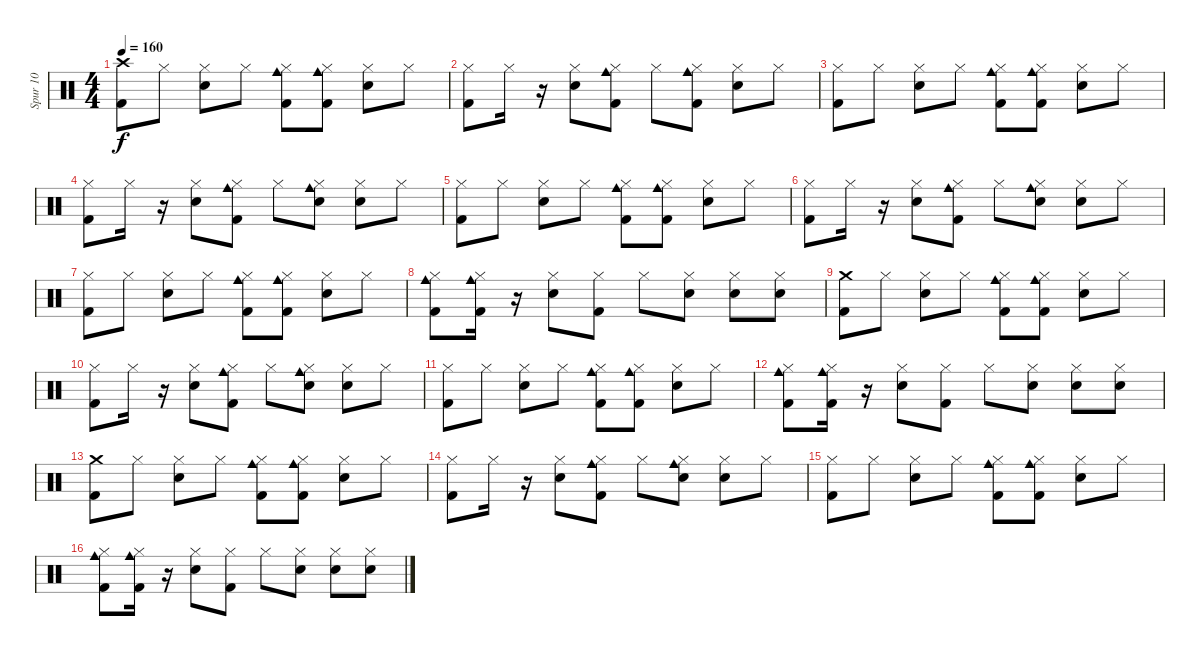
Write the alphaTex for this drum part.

\track ("Spur 10" "Spur 10") {instrument percussion}
\staff {score}
\articulation defaults
\ts (4 4)
\tempo 160
\clef neutral
\ks c
("Crash high (hit)" "Kick (hit) 2").8{dy f} "Hi-Hat (closed)".8 ("Hi-Hat (closed)" "Snare (hit) 2").8 "Hi-Hat (closed)".8 ("Hi-Hat (closed)" "Cowbell medium (hit)" "Kick (hit) 2").8 ("Hi-Hat (closed)" "Cowbell medium (hit)" "Kick (hit) 2").8 ("Hi-Hat (closed)" "Snare (hit) 2").8 "Hi-Hat (closed)".8 |
("Hi-Hat (closed)" "Kick (hit) 2").8 "Hi-Hat (closed)".16 r.16 ("Hi-Hat (closed)" "Snare (hit) 2").8 ("Hi-Hat (closed)" "Kick (hit) 2" "Cowbell medium (hit)").8 "Hi-Hat (closed)".8 ("Hi-Hat (closed)" "Kick (hit) 2" "Cowbell medium (hit)").8 ("Hi-Hat (closed)" "Snare (hit) 2").8 "Hi-Hat (closed)".8 |
("Hi-Hat (closed)" "Kick (hit) 2").8 "Hi-Hat (closed)".8 ("Hi-Hat (closed)" "Snare (hit) 2").8 "Hi-Hat (closed)".8 ("Hi-Hat (closed)" "Cowbell medium (hit)" "Kick (hit) 2").8 ("Hi-Hat (closed)" "Cowbell medium (hit)" "Kick (hit) 2").8 ("Hi-Hat (closed)" "Snare (hit) 2").8 "Hi-Hat (closed)".8 |
("Hi-Hat (closed)" "Kick (hit) 2").8 "Hi-Hat (closed)".16 r.16 ("Hi-Hat (closed)" "Snare (hit) 2").8 ("Hi-Hat (closed)" "Kick (hit) 2" "Cowbell medium (hit)").8 "Hi-Hat (closed)".8 ("Hi-Hat (closed)" "Hand Clap (hit)" "Cowbell medium (hit)").8 ("Hi-Hat (closed)" "Snare (hit) 2").8 "Hi-Hat (closed)".8 |
("Hi-Hat (closed)" "Kick (hit) 2").8 "Hi-Hat (closed)".8 ("Hi-Hat (closed)" "Snare (hit) 2").8 "Hi-Hat (closed)".8 ("Hi-Hat (closed)" "Cowbell medium (hit)" "Kick (hit) 2").8 ("Hi-Hat (closed)" "Cowbell medium (hit)" "Kick (hit) 2").8 ("Hi-Hat (closed)" "Snare (hit) 2").8 "Hi-Hat (closed)".8 |
("Hi-Hat (closed)" "Kick (hit) 2").8 "Hi-Hat (closed)".16 r.16 ("Hi-Hat (closed)" "Snare (hit) 2").8 ("Hi-Hat (closed)" "Kick (hit) 2" "Cowbell medium (hit)").8 "Hi-Hat (closed)".8 ("Hi-Hat (closed)" "Hand Clap (hit)" "Cowbell medium (hit)").8 ("Hi-Hat (closed)" "Snare (hit) 2").8 "Hi-Hat (closed)".8 |
("Hi-Hat (closed)" "Kick (hit) 2").8 "Hi-Hat (closed)".8 ("Hi-Hat (closed)" "Snare (hit) 2").8 "Hi-Hat (closed)".8 ("Hi-Hat (closed)" "Cowbell medium (hit)" "Kick (hit) 2").8 ("Hi-Hat (closed)" "Cowbell medium (hit)" "Kick (hit) 2").8 ("Hi-Hat (closed)" "Snare (hit) 2").8 "Hi-Hat (closed)".8 |
("Cowbell medium (hit)" "Hi-Hat (closed)" "Kick (hit) 2").8 ("Cowbell medium (hit)" "Kick (hit) 2" "Hi-Hat (closed)").16 r.16 ("Hi-Hat (closed)" "Snare (hit) 2").8 ("Hi-Hat (closed)" "Kick (hit) 2").8 "Hi-Hat (closed)".8 ("Hi-Hat (closed)" "Snare (hit) 2").8 ("Hi-Hat (closed)" "Snare (hit) 2").8 ("Snare (hit) 2" "Hi-Hat (closed)").8 |
("Crash medium (hit)" "Kick (hit) 2").8 "Hi-Hat (closed)".8 ("Hi-Hat (closed)" "Snare (hit) 2").8 "Hi-Hat (closed)".8 ("Hi-Hat (closed)" "Cowbell medium (hit)" "Kick (hit) 2").8 ("Hi-Hat (closed)" "Cowbell medium (hit)" "Kick (hit) 2").8 ("Hi-Hat (closed)" "Snare (hit) 2").8 "Hi-Hat (closed)".8 |
("Hi-Hat (closed)" "Kick (hit) 2").8 "Hi-Hat (closed)".16 r.16 ("Hi-Hat (closed)" "Snare (hit) 2").8 ("Hi-Hat (closed)" "Kick (hit) 2" "Cowbell medium (hit)").8 "Hi-Hat (closed)".8 ("Hi-Hat (closed)" "Hand Clap (hit)" "Cowbell medium (hit)").8 ("Hi-Hat (closed)" "Snare (hit) 2").8 "Hi-Hat (closed)".8 |
("Hi-Hat (closed)" "Kick (hit) 2").8 "Hi-Hat (closed)".8 ("Hi-Hat (closed)" "Snare (hit) 2").8 "Hi-Hat (closed)".8 ("Hi-Hat (closed)" "Cowbell medium (hit)" "Kick (hit) 2").8 ("Hi-Hat (closed)" "Cowbell medium (hit)" "Kick (hit) 2").8 ("Hi-Hat (closed)" "Snare (hit) 2").8 "Hi-Hat (closed)".8 |
("Cowbell medium (hit)" "Hi-Hat (closed)" "Kick (hit) 2").8 ("Cowbell medium (hit)" "Kick (hit) 2" "Hi-Hat (closed)").16 r.16 ("Hi-Hat (closed)" "Snare (hit) 2").8 ("Hi-Hat (closed)" "Kick (hit) 2").8 "Hi-Hat (closed)".8 ("Hi-Hat (closed)" "Snare (hit) 2").8 ("Hi-Hat (closed)" "Snare (hit) 2").8 ("Snare (hit) 2" "Hi-Hat (closed)").8 |
("Crash medium (hit)" "Kick (hit) 2").8 "Hi-Hat (closed)".8 ("Hi-Hat (closed)" "Snare (hit) 2").8 "Hi-Hat (closed)".8 ("Hi-Hat (closed)" "Cowbell medium (hit)" "Kick (hit) 2").8 ("Hi-Hat (closed)" "Cowbell medium (hit)" "Kick (hit) 2").8 ("Hi-Hat (closed)" "Snare (hit) 2").8 "Hi-Hat (closed)".8 |
("Hi-Hat (closed)" "Kick (hit) 2").8 "Hi-Hat (closed)".16 r.16 ("Hi-Hat (closed)" "Snare (hit) 2").8 ("Hi-Hat (closed)" "Kick (hit) 2" "Cowbell medium (hit)").8 "Hi-Hat (closed)".8 ("Hi-Hat (closed)" "Hand Clap (hit)" "Cowbell medium (hit)").8 ("Hi-Hat (closed)" "Snare (hit) 2").8 "Hi-Hat (closed)".8 |
("Hi-Hat (closed)" "Kick (hit) 2").8 "Hi-Hat (closed)".8 ("Hi-Hat (closed)" "Snare (hit) 2").8 "Hi-Hat (closed)".8 ("Hi-Hat (closed)" "Cowbell medium (hit)" "Kick (hit) 2").8 ("Hi-Hat (closed)" "Cowbell medium (hit)" "Kick (hit) 2").8 ("Hi-Hat (closed)" "Snare (hit) 2").8 "Hi-Hat (closed)".8 |
("Cowbell medium (hit)" "Hi-Hat (closed)" "Kick (hit) 2").8 ("Cowbell medium (hit)" "Kick (hit) 2" "Hi-Hat (closed)").16 r.16 ("Hi-Hat (closed)" "Snare (hit) 2").8 ("Hi-Hat (closed)" "Kick (hit) 2").8 "Hi-Hat (closed)".8 ("Hi-Hat (closed)" "Snare (hit) 2").8 ("Hi-Hat (closed)" "Snare (hit) 2").8 ("Snare (hit) 2" "Hi-Hat (closed)").8
